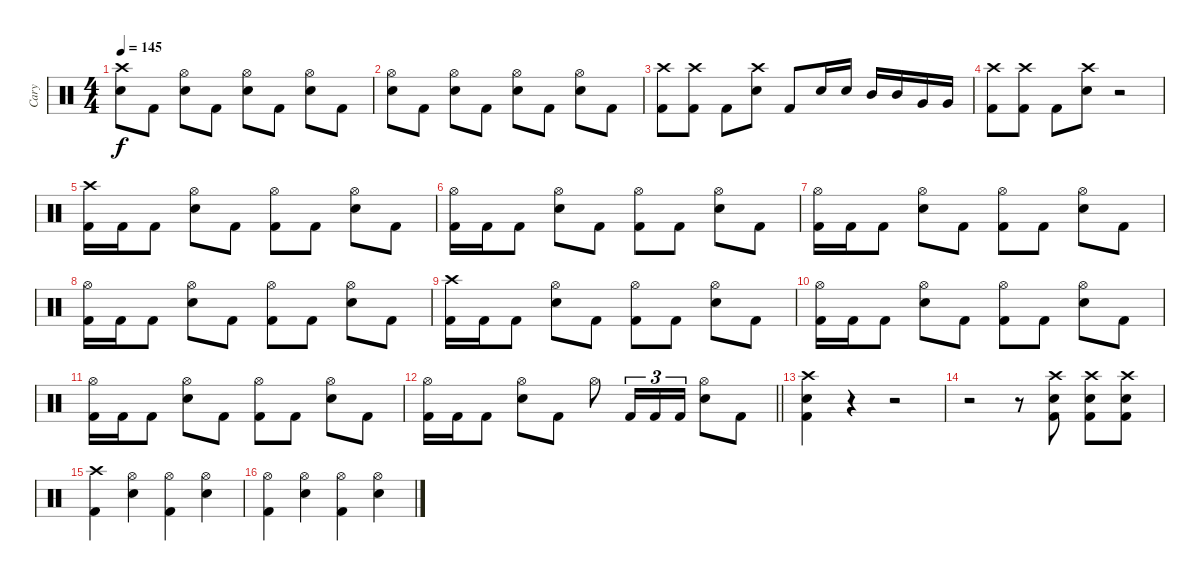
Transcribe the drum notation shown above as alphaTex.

\track ("Cary" "Cary") {instrument percussion}
\staff {score}
\articulation defaults
\ts (4 4)
\tempo 145
\clef neutral
\ks c
("Crash high (hit)" "Electric Snare (hit)").8{dy f} "Kick (hit) 2".8 ("Hi-Hat (open)" "Electric Snare (hit)").8 "Kick (hit) 2".8 ("Hi-Hat (open)" "Electric Snare (hit)").8 "Kick (hit) 2".8 ("Hi-Hat (open)" "Electric Snare (hit)").8 "Kick (hit) 2".8 |
("Hi-Hat (open)" "Electric Snare (hit)").8 "Kick (hit) 2".8 ("Hi-Hat (open)" "Electric Snare (hit)").8 "Kick (hit) 2".8 ("Hi-Hat (open)" "Electric Snare (hit)").8 "Kick (hit) 2".8 ("Hi-Hat (open)" "Electric Snare (hit)").8 "Kick (hit) 2".8 |
("Crash high (hit)" "Kick (hit) 2").8 ("Crash high (hit)" "Kick (hit) 2").8 "Kick (hit) 2".8 ("Crash high (hit)" "Electric Snare (hit)").8 "Kick (hit) 2".8 "Electric Snare (hit)".16 "Electric Snare (hit)".16 "Mid Tom (hit)".16 "Mid Tom (hit)".16 "Very Low Tom (hit)".16 "Very Low Tom (hit)".16 |
("Crash high (hit)" "Kick (hit) 2").8 ("Crash high (hit)" "Kick (hit) 2").8 "Kick (hit) 2".8 ("Crash high (hit)" "Electric Snare (hit)").8 r.2 |
("Crash high (hit)" "Kick (hit) 2").16 "Kick (hit) 2".16 "Kick (hit) 2".8 ("Hi-Hat (open)" "Electric Snare (hit)").8 "Kick (hit) 2".8 ("Hi-Hat (open)" "Kick (hit) 2").8 "Kick (hit) 2".8 ("Hi-Hat (open)" "Electric Snare (hit)").8 "Kick (hit) 2".8 |
("Hi-Hat (open)" "Kick (hit) 2").16 "Kick (hit) 2".16 "Kick (hit) 2".8 ("Hi-Hat (open)" "Electric Snare (hit)").8 "Kick (hit) 2".8 ("Hi-Hat (open)" "Kick (hit) 2").8 "Kick (hit) 2".8 ("Hi-Hat (open)" "Electric Snare (hit)").8 "Kick (hit) 2".8 |
("Hi-Hat (open)" "Kick (hit) 2").16 "Kick (hit) 2".16 "Kick (hit) 2".8 ("Hi-Hat (open)" "Electric Snare (hit)").8 "Kick (hit) 2".8 ("Hi-Hat (open)" "Kick (hit) 2").8 "Kick (hit) 2".8 ("Hi-Hat (open)" "Electric Snare (hit)").8 "Kick (hit) 2".8 |
("Hi-Hat (open)" "Kick (hit) 2").16 "Kick (hit) 2".16 "Kick (hit) 2".8 ("Hi-Hat (open)" "Electric Snare (hit)").8 "Kick (hit) 2".8 ("Hi-Hat (open)" "Kick (hit) 2").8 "Kick (hit) 2".8 ("Hi-Hat (open)" "Electric Snare (hit)").8 "Kick (hit) 2".8 |
("Crash high (hit)" "Kick (hit) 2").16 "Kick (hit) 2".16 "Kick (hit) 2".8 ("Hi-Hat (open)" "Electric Snare (hit)").8 "Kick (hit) 2".8 ("Hi-Hat (open)" "Kick (hit) 2").8 "Kick (hit) 2".8 ("Hi-Hat (open)" "Electric Snare (hit)").8 "Kick (hit) 2".8 |
("Hi-Hat (open)" "Kick (hit) 2").16 "Kick (hit) 2".16 "Kick (hit) 2".8 ("Hi-Hat (open)" "Electric Snare (hit)").8 "Kick (hit) 2".8 ("Hi-Hat (open)" "Kick (hit) 2").8 "Kick (hit) 2".8 ("Hi-Hat (open)" "Electric Snare (hit)").8 "Kick (hit) 2".8 |
("Hi-Hat (open)" "Kick (hit) 2").16 "Kick (hit) 2".16 "Kick (hit) 2".8 ("Hi-Hat (open)" "Electric Snare (hit)").8 "Kick (hit) 2".8 ("Hi-Hat (open)" "Kick (hit) 2").8 "Kick (hit) 2".8 ("Hi-Hat (open)" "Electric Snare (hit)").8 "Kick (hit) 2".8 |
\barLineRight lightlight
("Hi-Hat (open)" "Kick (hit) 2").16 "Kick (hit) 2".16 "Kick (hit) 2".8 ("Hi-Hat (open)" "Electric Snare (hit)").8 "Kick (hit) 2".8 "Hi-Hat (open)".8 "Kick (hit) 2".16{tu (3 2)} "Kick (hit) 2".16{tu (3 2)} "Kick (hit) 2".16{tu (3 2)} ("Hi-Hat (open)" "Electric Snare (hit)").8 "Kick (hit) 2".8 |
("Crash high (hit)" "Electric Snare (hit)" "Kick (hit) 2").4 r.4 r.2 |
r.2 r.8 ("Crash high (hit)" "Electric Snare (hit)" "Kick (hit) 2").8 ("Crash high (hit)" "Electric Snare (hit)" "Kick (hit) 2").8 ("Crash high (hit)" "Electric Snare (hit)" "Kick (hit) 2").8 |
("Crash high (hit)" "Kick (hit) 2").4 ("Hi-Hat (open)" "Electric Snare (hit)").4 ("Hi-Hat (open)" "Kick (hit) 2").4 ("Hi-Hat (open)" "Electric Snare (hit)").4 |
("Hi-Hat (open)" "Kick (hit) 2").4 ("Hi-Hat (open)" "Electric Snare (hit)").4 ("Hi-Hat (open)" "Kick (hit) 2").4 ("Hi-Hat (open)" "Electric Snare (hit)").4
